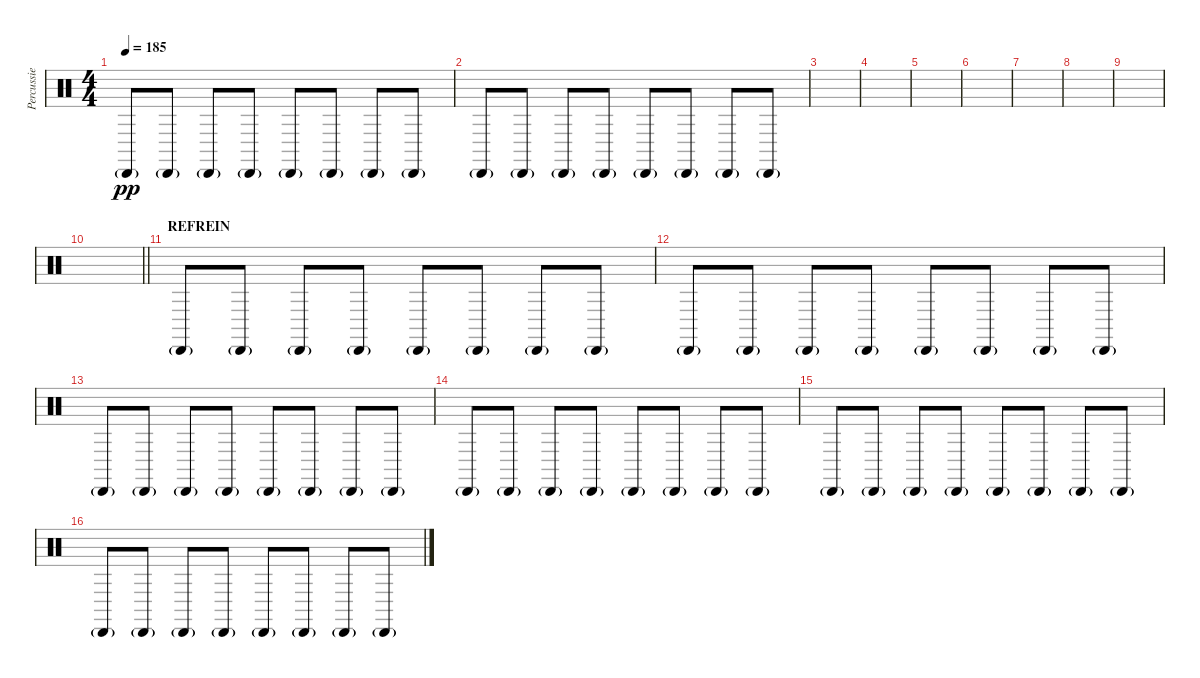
\track ("Percussie" "Percussie") {instrument percussion}
\staff {score}
\articulation defaults
\ts (4 4)
\tempo 185
\clef neutral
\ks c "Cabasa (hit)"{g}.8{dy pp} "Cabasa (hit)"{g}.8 "Cabasa (hit)"{g}.8 "Cabasa (hit)"{g}.8 "Cabasa (hit)"{g}.8 "Cabasa (hit)"{g}.8 "Cabasa (hit)"{g}.8 "Cabasa (hit)"{g}.8
|
"Cabasa (hit)"{g}.8 "Cabasa (hit)"{g}.8 "Cabasa (hit)"{g}.8 "Cabasa (hit)"{g}.8 "Cabasa (hit)"{g}.8 "Cabasa (hit)"{g}.8 "Cabasa (hit)"{g}.8 "Cabasa (hit)"{g}.8 |
|
|
|
|
|
|
|
\barLineRight lightlight
|
\section ("" "REFREIN")
"Cabasa (hit)"{g}.8 "Cabasa (hit)"{g}.8 "Cabasa (hit)"{g}.8 "Cabasa (hit)"{g}.8 "Cabasa (hit)"{g}.8 "Cabasa (hit)"{g}.8 "Cabasa (hit)"{g}.8 "Cabasa (hit)"{g}.8 |
"Cabasa (hit)"{g}.8 "Cabasa (hit)"{g}.8 "Cabasa (hit)"{g}.8 "Cabasa (hit)"{g}.8 "Cabasa (hit)"{g}.8 "Cabasa (hit)"{g}.8 "Cabasa (hit)"{g}.8 "Cabasa (hit)"{g}.8 |
"Cabasa (hit)"{g}.8 "Cabasa (hit)"{g}.8 "Cabasa (hit)"{g}.8 "Cabasa (hit)"{g}.8 "Cabasa (hit)"{g}.8 "Cabasa (hit)"{g}.8 "Cabasa (hit)"{g}.8 "Cabasa (hit)"{g}.8 |
"Cabasa (hit)"{g}.8 "Cabasa (hit)"{g}.8 "Cabasa (hit)"{g}.8 "Cabasa (hit)"{g}.8 "Cabasa (hit)"{g}.8 "Cabasa (hit)"{g}.8 "Cabasa (hit)"{g}.8 "Cabasa (hit)"{g}.8 |
"Cabasa (hit)"{g}.8 "Cabasa (hit)"{g}.8 "Cabasa (hit)"{g}.8 "Cabasa (hit)"{g}.8 "Cabasa (hit)"{g}.8 "Cabasa (hit)"{g}.8 "Cabasa (hit)"{g}.8 "Cabasa (hit)"{g}.8 |
"Cabasa (hit)"{g}.8 "Cabasa (hit)"{g}.8 "Cabasa (hit)"{g}.8 "Cabasa (hit)"{g}.8 "Cabasa (hit)"{g}.8 "Cabasa (hit)"{g}.8 "Cabasa (hit)"{g}.8 "Cabasa (hit)"{g}.8
